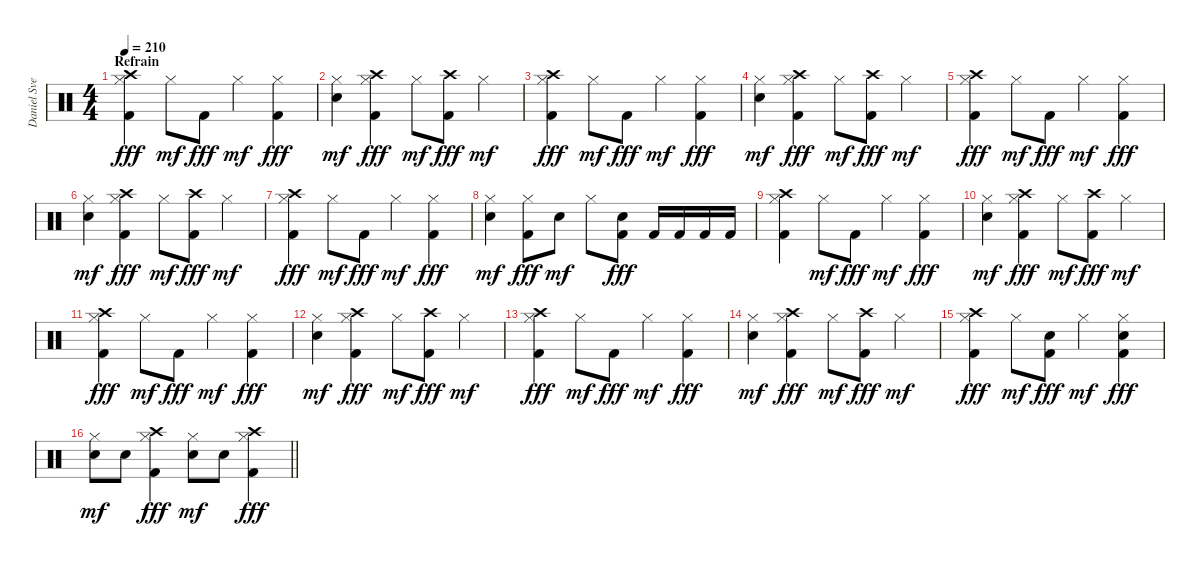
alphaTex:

\track ("Daniel Svensson" "Daniel Sve") {instrument percussion}
\staff {score}
\articulation defaults
\ts (4 4)
\section ("" "Refrain")
\tempo 210
\clef neutral
\ks c
("Crash high (hit)" "Hi-Hat (closed)" "Kick (hit) 2").4{dy fff} "Hi-Hat (closed)".8{dy mf} "Kick (hit) 2".8{dy fff} "Hi-Hat (closed)".4{dy mf} ("Hi-Hat (closed)" "Kick (hit) 2").4{dy fff} |
("Hi-Hat (closed)" "Electric Snare (hit)").4{dy mf} ("Crash high (hit)" "Hi-Hat (closed)" "Kick (hit) 2").4{dy fff} "Hi-Hat (closed)".8{dy mf} ("Crash high (hit)" "Kick (hit) 2").8{dy fff} "Hi-Hat (closed)".4{dy mf} |
("Crash high (hit)" "Hi-Hat (closed)" "Kick (hit) 2").4{dy fff} "Hi-Hat (closed)".8{dy mf} "Kick (hit) 2".8{dy fff} "Hi-Hat (closed)".4{dy mf} ("Hi-Hat (closed)" "Kick (hit) 2").4{dy fff} |
("Hi-Hat (closed)" "Electric Snare (hit)").4{dy mf} ("Crash high (hit)" "Hi-Hat (closed)" "Kick (hit) 2").4{dy fff} "Hi-Hat (closed)".8{dy mf} ("Crash high (hit)" "Kick (hit) 2").8{dy fff} "Hi-Hat (closed)".4{dy mf} |
("Crash high (hit)" "Hi-Hat (closed)" "Kick (hit) 2").4{dy fff} "Hi-Hat (closed)".8{dy mf} "Kick (hit) 2".8{dy fff} "Hi-Hat (closed)".4{dy mf} ("Hi-Hat (closed)" "Kick (hit) 2").4{dy fff} |
("Hi-Hat (closed)" "Electric Snare (hit)").4{dy mf} ("Crash high (hit)" "Hi-Hat (closed)" "Kick (hit) 2").4{dy fff} "Hi-Hat (closed)".8{dy mf} ("Crash high (hit)" "Kick (hit) 2").8{dy fff} "Hi-Hat (closed)".4{dy mf} |
("Crash high (hit)" "Hi-Hat (closed)" "Kick (hit) 2").4{dy fff} "Hi-Hat (closed)".8{dy mf} "Kick (hit) 2".8{dy fff} "Hi-Hat (closed)".4{dy mf} ("Hi-Hat (closed)" "Kick (hit) 2").4{dy fff} |
("Hi-Hat (closed)" "Electric Snare (hit)").4{dy mf} ("Hi-Hat (closed)" "Kick (hit) 2").8{dy fff} "Electric Snare (hit)".8{dy mf} "Hi-Hat (closed)".8 ("Electric Snare (hit)" "Kick (hit) 2").8{dy fff} "Kick (hit) 2".16 "Kick (hit) 2".16 "Kick (hit) 2".16 "Kick (hit) 2".16 |
("Crash high (hit)" "Hi-Hat (closed)" "Kick (hit) 2").4 "Hi-Hat (closed)".8{dy mf} "Kick (hit) 2".8{dy fff} "Hi-Hat (closed)".4{dy mf} ("Hi-Hat (closed)" "Kick (hit) 2").4{dy fff} |
("Hi-Hat (closed)" "Electric Snare (hit)").4{dy mf} ("Crash high (hit)" "Hi-Hat (closed)" "Kick (hit) 2").4{dy fff} "Hi-Hat (closed)".8{dy mf} ("Crash high (hit)" "Kick (hit) 2").8{dy fff} "Hi-Hat (closed)".4{dy mf} |
("Crash high (hit)" "Hi-Hat (closed)" "Kick (hit) 2").4{dy fff} "Hi-Hat (closed)".8{dy mf} "Kick (hit) 2".8{dy fff} "Hi-Hat (closed)".4{dy mf} ("Hi-Hat (closed)" "Kick (hit) 2").4{dy fff} |
("Hi-Hat (closed)" "Electric Snare (hit)").4{dy mf} ("Crash high (hit)" "Hi-Hat (closed)" "Kick (hit) 2").4{dy fff} "Hi-Hat (closed)".8{dy mf} ("Crash high (hit)" "Kick (hit) 2").8{dy fff} "Hi-Hat (closed)".4{dy mf} |
("Crash high (hit)" "Hi-Hat (closed)" "Kick (hit) 2").4{dy fff} "Hi-Hat (closed)".8{dy mf} "Kick (hit) 2".8{dy fff} "Hi-Hat (closed)".4{dy mf} ("Hi-Hat (closed)" "Kick (hit) 2").4{dy fff} |
("Hi-Hat (closed)" "Electric Snare (hit)").4{dy mf} ("Crash high (hit)" "Hi-Hat (closed)" "Kick (hit) 2").4{dy fff} "Hi-Hat (closed)".8{dy mf} ("Crash high (hit)" "Kick (hit) 2").8{dy fff} "Hi-Hat (closed)".4{dy mf} |
("Crash high (hit)" "Hi-Hat (closed)" "Kick (hit) 2").4{dy fff} "Hi-Hat (closed)".8{dy mf} ("Electric Snare (hit)" "Kick (hit) 2").8{dy fff} "Hi-Hat (closed)".4{dy mf} ("Hi-Hat (closed)" "Electric Snare (hit)" "Kick (hit) 2").4{dy fff} |
\barLineRight lightlight
("Hi-Hat (closed)" "Electric Snare (hit)").8{dy mf} "Electric Snare (hit)".8 ("Crash high (hit)" "Hi-Hat (closed)" "Kick (hit) 2").4{dy fff} ("Hi-Hat (closed)" "Electric Snare (hit)").8{dy mf} "Electric Snare (hit)".8 ("Crash high (hit)" "Hi-Hat (closed)" "Kick (hit) 2").4{dy fff}
